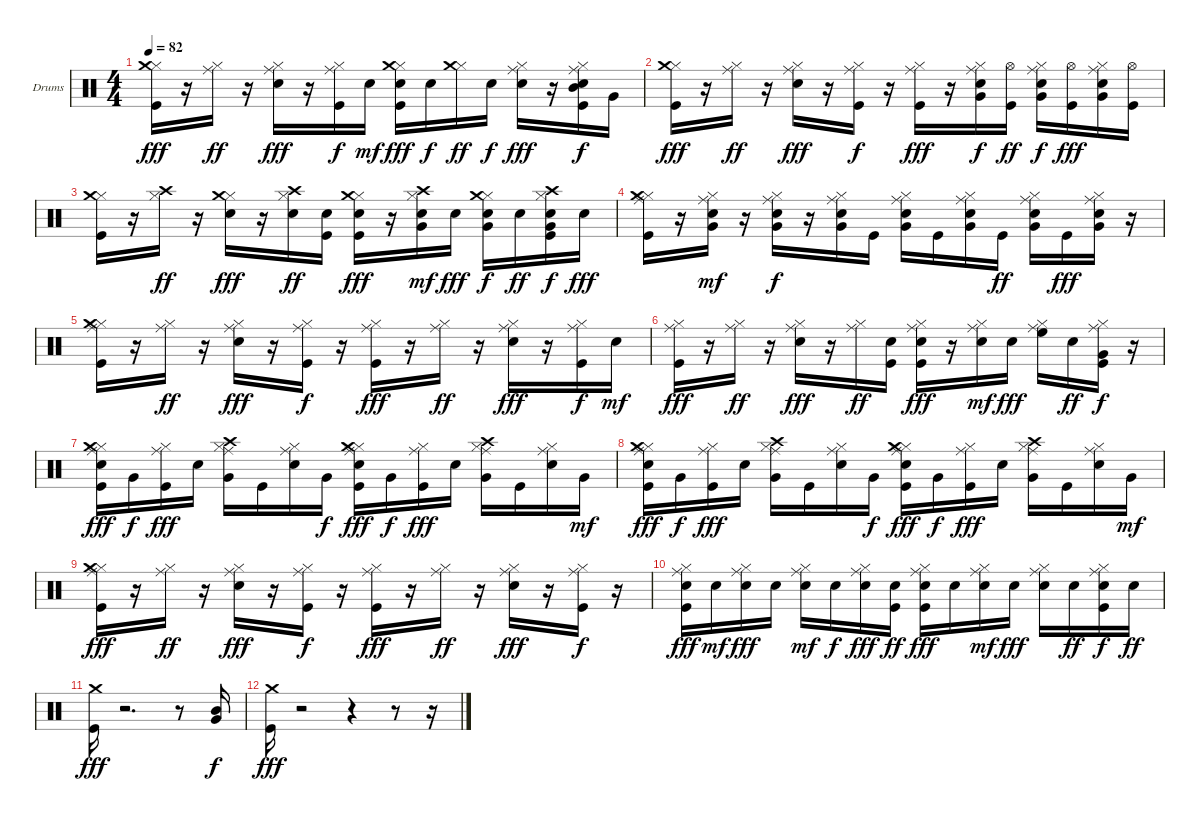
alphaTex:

\bracketExtendMode groupsimilarinstruments
\firstSystemTrackNameOrientation horizontal
\otherSystemsTrackNameOrientation horizontal
\track ("Drumkit" "Drums") {instrument percussion}
\staff {score}
\articulation defaults
\ts (4 4)
\tempo 82
\clef neutral
\ks c
("Kick (hit)" "Hi-Hat (closed)" "Crash medium (hit)").16{dy fff} r.16 ("Hi-Hat (closed)" "Ride (middle)").16{dy ff} r.16 ("Snare (hit) 2" "Hi-Hat (closed)" "Ride (middle)").16{dy fff} r.16 ("Kick (hit)" "Hi-Hat (closed)" "Ride (middle)").16{dy f} "Snare (hit) 2".16{dy mf} ("Kick (hit)" "Snare (hit) 2" "Hi-Hat (closed)" "Crash medium (hit)").16{dy fff} "Snare (hit) 2".16{dy f} ("Hi-Hat (closed)" "Crash medium (hit)").16{dy ff} "Snare (hit) 2".16{dy f} ("Snare (hit) 2" "Hi-Hat (closed)" "Ride (middle)").16{dy fff} r.16 ("Snare (hit) 2" "Kick (hit)" "Hi-Hat (closed)" "Ride (middle)" "Mid Tom (hit)").16{dy f} "Very Low Tom (hit)".16 |
("Kick (hit)" "Hi-Hat (closed)" "Crash medium (hit)").16{dy fff} r.16 ("Hi-Hat (closed)" "Ride (middle)").16{dy ff} r.16 ("Snare (hit) 2" "Hi-Hat (closed)" "Ride (middle)").16{dy fff} r.16 ("Kick (hit)" "Hi-Hat (closed)" "Ride (middle)").16{dy f} r.16 ("Kick (hit)" "Hi-Hat (closed)" "Ride (middle)").16{dy fff} r.16 ("Snare (hit) 2" "Hi-Hat (closed)" "Ride (middle)" "Very Low Tom (hit)").16{dy f} ("Kick (hit)" "Hi-Hat (open)").16{dy ff} ("Snare (hit) 2" "Hi-Hat (closed)" "Ride (middle)" "Very Low Tom (hit)").16{dy f} ("Kick (hit)" "Hi-Hat (open)").16{dy fff} ("Snare (hit) 2" "Hi-Hat (closed)" "Ride (middle)" "Very Low Tom (hit)").16 ("Kick (hit)" "Hi-Hat (open)").16 |
("Kick (hit)" "Hi-Hat (closed)" "Crash medium (hit)").16 r.16 ("Hi-Hat (closed)" "Crash high (hit)").16{dy ff} r.16 ("Snare (hit) 2" "Hi-Hat (closed)" "Crash medium (hit)").16{dy fff} r.16 ("Hi-Hat (closed)" "Crash high (hit)" "Snare (hit) 2").16{dy ff} ("Kick (hit)" "Snare (hit) 2").16 ("Kick (hit)" "Snare (hit) 2" "Hi-Hat (closed)" "Crash medium (hit)").16{dy fff} r.16 ("Snare (hit) 2" "Hi-Hat (closed)" "Crash high (hit)" "Very Low Tom (hit)").16{dy mf} "Snare (hit) 2".16{dy fff} ("Snare (hit) 2" "Hi-Hat (closed)" "Crash medium (hit)" "Very Low Tom (hit)").16{dy f} "Snare (hit) 2".16{dy ff} ("Kick (hit)" "Snare (hit) 2" "Hi-Hat (closed)" "Crash high (hit)" "Very Low Tom (hit)").16{dy f} "Snare (hit) 2".16{dy fff} |
("Kick (hit)" "Hi-Hat (closed)" "Ride (middle)" "Crash medium (hit)").16 r.16 ("Snare (hit) 2" "Hi-Hat (closed)" "Ride (middle)" "Very Low Tom (hit)").16{dy mf} r.16 ("Snare (hit) 2" "Hi-Hat (closed)" "Ride (middle)" "Very Low Tom (hit)").16{dy f} r.16 ("Snare (hit) 2" "Hi-Hat (closed)" "Ride (middle)" "Very Low Tom (hit)").16 "Kick (hit)".16 ("Snare (hit) 2" "Hi-Hat (closed)" "Ride (middle)" "Very Low Tom (hit)").16 "Kick (hit)".16 ("Snare (hit) 2" "Hi-Hat (closed)" "Ride (middle)" "Very Low Tom (hit)").16 "Kick (hit)".16{dy ff} ("Snare (hit) 2" "Hi-Hat (closed)" "Ride (middle)" "Very Low Tom (hit)").16 "Kick (hit)".16{dy fff} ("Snare (hit) 2" "Hi-Hat (closed)" "Ride (middle)" "Very Low Tom (hit)").16 r.16 |
("Kick (hit)" "Hi-Hat (closed)" "Ride (middle)" "Crash medium (hit)").16 r.16 ("Hi-Hat (closed)" "Ride (middle)").16{dy ff} r.16 ("Snare (hit) 2" "Hi-Hat (closed)" "Ride (middle)").16{dy fff} r.16 ("Kick (hit)" "Hi-Hat (closed)" "Ride (middle)").16{dy f} r.16 ("Kick (hit)" "Hi-Hat (closed)" "Ride (middle)").16{dy fff} r.16 ("Hi-Hat (closed)" "Ride (middle)").16{dy ff} r.16 ("Snare (hit) 2" "Hi-Hat (closed)" "Ride (middle)").16{dy fff} r.16 ("Kick (hit)" "Hi-Hat (closed)" "Ride (middle)").16{dy f} "Snare (hit) 2".16{dy mf} |
("Kick (hit)" "Hi-Hat (closed)" "Ride (middle)").16{dy fff} r.16 ("Hi-Hat (closed)" "Ride (middle)").16{dy ff} r.16 ("Snare (hit) 2" "Hi-Hat (closed)" "Ride (middle)").16{dy fff} r.16 ("Hi-Hat (closed)" "Ride (middle)").16{dy ff} ("Kick (hit)" "Snare (hit) 2").16 ("Kick (hit)" "Snare (hit) 2" "Hi-Hat (closed)" "Ride (middle)").16{dy fff} r.16 ("Snare (hit) 2" "Hi-Hat (closed)" "Ride (middle)").16{dy mf} "Snare (hit) 2".16{dy fff} ("Hi-Hat (closed)" "Ride (middle)" "High Floor Tom (hit)").16 "Snare (hit) 2".16{dy ff} ("Kick (hit)" "Hi-Hat (closed)" "Ride (middle)" "Very Low Tom (hit)").16{dy f} r.16 |
("Kick (hit)" "Snare (hit) 2" "Hi-Hat (closed)" "Ride (middle)" "Crash medium (hit)").16{dy fff} "Very Low Tom (hit)".16{dy f} ("Kick (hit)" "Hi-Hat (closed)" "Ride (middle)").16{dy fff} "Snare (hit) 2".16 ("Hi-Hat (closed)" "Ride (middle)" "Crash high (hit)" "Very Low Tom (hit)").16 "Kick (hit)".16 ("Snare (hit) 2" "Hi-Hat (closed)" "Ride (middle)").16 "Very Low Tom (hit)".16{dy f} ("Kick (hit)" "Snare (hit) 2" "Hi-Hat (closed)" "Ride (middle)" "Crash medium (hit)").16{dy fff} "Very Low Tom (hit)".16{dy f} ("Kick (hit)" "Hi-Hat (closed)" "Ride (middle)").16{dy fff} "Snare (hit) 2".16 ("Hi-Hat (closed)" "Ride (middle)" "Crash high (hit)" "Very Low Tom (hit)").16 "Kick (hit)".16 ("Snare (hit) 2" "Hi-Hat (closed)" "Ride (middle)").16 "Very Low Tom (hit)".16{dy mf} |
("Kick (hit)" "Snare (hit) 2" "Hi-Hat (closed)" "Ride (middle)" "Crash medium (hit)").16{dy fff} "Very Low Tom (hit)".16{dy f} ("Kick (hit)" "Hi-Hat (closed)" "Ride (middle)").16{dy fff} "Snare (hit) 2".16 ("Hi-Hat (closed)" "Ride (middle)" "Crash high (hit)" "Very Low Tom (hit)").16 "Kick (hit)".16 ("Snare (hit) 2" "Hi-Hat (closed)" "Ride (middle)").16 "Very Low Tom (hit)".16{dy f} ("Kick (hit)" "Snare (hit) 2" "Hi-Hat (closed)" "Ride (middle)" "Crash medium (hit)").16{dy fff} "Very Low Tom (hit)".16{dy f} ("Kick (hit)" "Hi-Hat (closed)" "Ride (middle)").16{dy fff} "Snare (hit) 2".16 ("Hi-Hat (closed)" "Ride (middle)" "Crash high (hit)" "Very Low Tom (hit)").16 "Kick (hit)".16 ("Snare (hit) 2" "Hi-Hat (closed)" "Ride (middle)").16 "Very Low Tom (hit)".16{dy mf} |
("Kick (hit)" "Hi-Hat (closed)" "Ride (middle)" "Crash medium (hit)").16{dy fff} r.16 ("Hi-Hat (closed)" "Ride (middle)").16{dy ff} r.16 ("Snare (hit) 2" "Hi-Hat (closed)" "Ride (middle)").16{dy fff} r.16 ("Kick (hit)" "Hi-Hat (closed)" "Ride (middle)").16{dy f} r.16 ("Kick (hit)" "Hi-Hat (closed)" "Ride (middle)").16{dy fff} r.16 ("Hi-Hat (closed)" "Ride (middle)").16{dy ff} r.16 ("Snare (hit) 2" "Hi-Hat (closed)" "Ride (middle)").16{dy fff} r.16 ("Kick (hit)" "Hi-Hat (closed)" "Ride (middle)").16{dy f} r.16 |
("Kick (hit)" "Snare (hit) 2" "Hi-Hat (closed)" "Ride (middle)").16{dy fff} "Snare (hit) 2".16{dy mf} ("Snare (hit) 2" "Hi-Hat (closed)" "Ride (middle)").16{dy fff} "Snare (hit) 2".16 ("Snare (hit) 2" "Hi-Hat (closed)" "Ride (middle)").16{dy mf} "Snare (hit) 2".16{dy f} ("Snare (hit) 2" "Hi-Hat (closed)" "Ride (middle)").16{dy fff} ("Kick (hit)" "Snare (hit) 2").16{dy ff} ("Kick (hit)" "Snare (hit) 2" "Hi-Hat (closed)" "Ride (middle)").16{dy fff} "Snare (hit) 2".16 ("Snare (hit) 2" "Hi-Hat (closed)" "Ride (middle)").16{dy mf} "Snare (hit) 2".16{dy fff} ("Snare (hit) 2" "Hi-Hat (closed)" "Ride (middle)").16 "Snare (hit) 2".16{dy ff} ("Kick (hit)" "Snare (hit) 2" "Hi-Hat (closed)" "Ride (middle)").16{dy f} "Snare (hit) 2".16{dy ff} |
("Kick (hit)" "Crash medium (hit)").16{dy fff} r.2{d} r.8 ("Mid Tom (hit)" "Very Low Tom (hit)").16{dy f} |
("Kick (hit)" "Crash medium (hit)").16{dy fff} r.2 r.4 r.8 r.16
